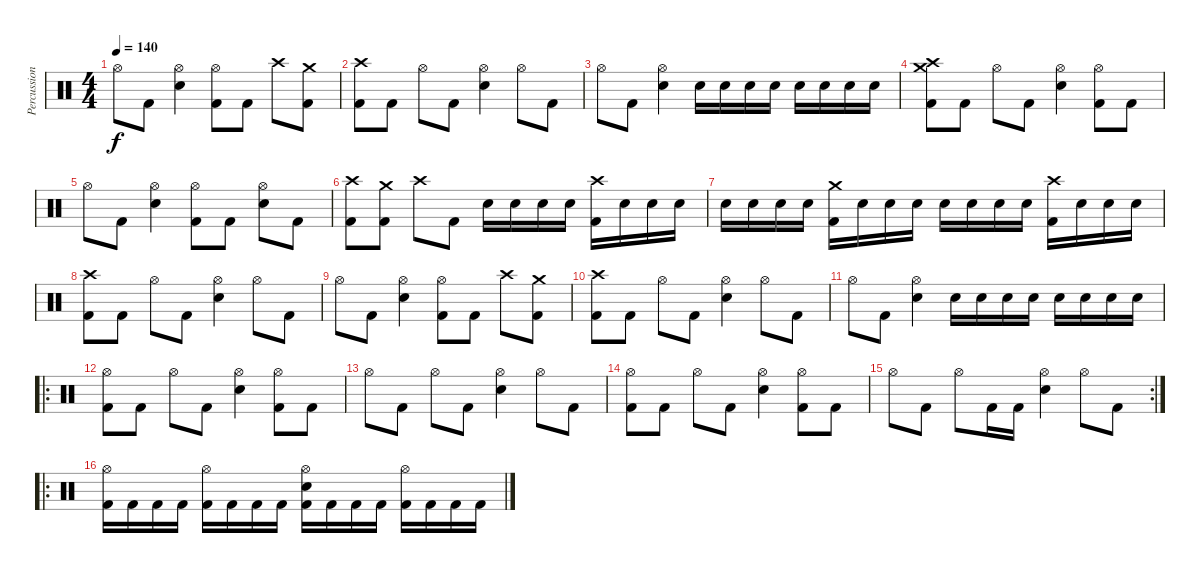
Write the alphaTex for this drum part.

\track ("Percussion" "Percussion") {instrument percussion}
\staff {score}
\articulation defaults
\ts (4 4)
\tempo 140
\clef neutral
\ks c "Hi-Hat (open)".8{dy f} "Kick (hit) 2".8
("Hi-Hat (open)" "Electric Snare (hit)").4 ("Hi-Hat (open)" "Kick (hit) 2").8 "Kick (hit) 2".8 "Crash high (hit)".8 ("Crash medium (hit)" "Kick (hit) 2").8 |
("Crash high (hit)" "Kick (hit) 2").8 "Kick (hit) 2".8 "Hi-Hat (open)".8 "Kick (hit) 2".8 ("Hi-Hat (open)" "Electric Snare (hit)").4 "Hi-Hat (open)".8 "Kick (hit) 2".8 |
"Hi-Hat (open)".8 "Kick (hit) 2".8 ("Hi-Hat (open)" "Electric Snare (hit)").4 "Electric Snare (hit)".16 "Electric Snare (hit)".16 "Electric Snare (hit)".16 "Electric Snare (hit)".16 "Electric Snare (hit)".16 "Electric Snare (hit)".16 "Electric Snare (hit)".16 "Electric Snare (hit)".16 |
("Crash high (hit)" "Crash medium (hit)" "Kick (hit) 2").8 "Kick (hit) 2".8 "Hi-Hat (open)".8 "Kick (hit) 2".8 ("Hi-Hat (open)" "Electric Snare (hit)").4 ("Hi-Hat (open)" "Kick (hit) 2").8 "Kick (hit) 2".8 |
"Hi-Hat (open)".8 "Kick (hit) 2".8 ("Hi-Hat (open)" "Electric Snare (hit)").4 ("Hi-Hat (open)" "Kick (hit) 2").8 "Kick (hit) 2".8 ("Hi-Hat (open)" "Electric Snare (hit)").8 "Kick (hit) 2".8 |
("Crash high (hit)" "Kick (hit) 2").8 ("Crash medium (hit)" "Kick (hit) 2").8 "Crash high (hit)".8 "Kick (hit) 2".8 "Electric Snare (hit)".16 "Electric Snare (hit)".16 "Electric Snare (hit)".16 "Electric Snare (hit)".16 ("Crash high (hit)" "Kick (hit) 2").16 "Electric Snare (hit)".16 "Electric Snare (hit)".16 "Electric Snare (hit)".16 |
"Electric Snare (hit)".16 "Electric Snare (hit)".16 "Electric Snare (hit)".16 "Electric Snare (hit)".16 ("Crash medium (hit)" "Kick (hit) 2").16 "Electric Snare (hit)".16 "Electric Snare (hit)".16 "Electric Snare (hit)".16 "Electric Snare (hit)".16 "Electric Snare (hit)".16 "Electric Snare (hit)".16 "Electric Snare (hit)".16 ("Crash high (hit)" "Kick (hit) 2").16 "Electric Snare (hit)".16 "Electric Snare (hit)".16 "Electric Snare (hit)".16 |
("Crash high (hit)" "Kick (hit) 2").8 "Kick (hit) 2".8 "Hi-Hat (open)".8 "Kick (hit) 2".8 ("Hi-Hat (open)" "Electric Snare (hit)").4 "Hi-Hat (open)".8 "Kick (hit) 2".8 |
"Hi-Hat (open)".8 "Kick (hit) 2".8 ("Hi-Hat (open)" "Electric Snare (hit)").4 ("Hi-Hat (open)" "Kick (hit) 2").8 "Kick (hit) 2".8 "Crash high (hit)".8 ("Crash medium (hit)" "Kick (hit) 2").8 |
("Crash high (hit)" "Kick (hit) 2").8 "Kick (hit) 2".8 "Hi-Hat (open)".8 "Kick (hit) 2".8 ("Hi-Hat (open)" "Electric Snare (hit)").4 "Hi-Hat (open)".8 "Kick (hit) 2".8 |
"Hi-Hat (open)".8 "Kick (hit) 2".8 ("Hi-Hat (open)" "Electric Snare (hit)").4 "Electric Snare (hit)".16 "Electric Snare (hit)".16 "Electric Snare (hit)".16 "Electric Snare (hit)".16 "Electric Snare (hit)".16 "Electric Snare (hit)".16 "Electric Snare (hit)".16 "Electric Snare (hit)".16 |
\ro
("Hi-Hat (open)" "Kick (hit) 2").8 "Kick (hit) 2".8 "Hi-Hat (open)".8 "Kick (hit) 2".8 ("Hi-Hat (open)" "Electric Snare (hit)").4 ("Hi-Hat (open)" "Kick (hit) 2").8 "Kick (hit) 2".8 |
"Hi-Hat (open)".8 "Kick (hit) 2".8 "Hi-Hat (open)".8 "Kick (hit) 2".8 ("Hi-Hat (open)" "Electric Snare (hit)").4 "Hi-Hat (open)".8 "Kick (hit) 2".8 |
("Hi-Hat (open)" "Kick (hit) 2").8 "Kick (hit) 2".8 "Hi-Hat (open)".8 "Kick (hit) 2".8 ("Hi-Hat (open)" "Electric Snare (hit)").4 ("Hi-Hat (open)" "Kick (hit) 2").8 "Kick (hit) 2".8 |
\rc 2 "Hi-Hat (open)".8 "Kick (hit) 2".8 "Hi-Hat (open)".8 "Kick (hit) 2".16 "Kick (hit) 2".16
("Hi-Hat (open)" "Electric Snare (hit)").4 "Hi-Hat (open)".8 "Kick (hit) 2".8 |
\ro
("Hi-Hat (open)" "Kick (hit) 2").16 "Kick (hit) 2".16 "Kick (hit) 2".16 "Kick (hit) 2".16 ("Hi-Hat (open)" "Kick (hit) 2").16 "Kick (hit) 2".16 "Kick (hit) 2".16 "Kick (hit) 2".16 ("Hi-Hat (open)" "Electric Snare (hit)" "Kick (hit) 2").16 "Kick (hit) 2".16 "Kick (hit) 2".16 "Kick (hit) 2".16 ("Hi-Hat (open)" "Kick (hit) 2").16 "Kick (hit) 2".16 "Kick (hit) 2".16 "Kick (hit) 2".16
